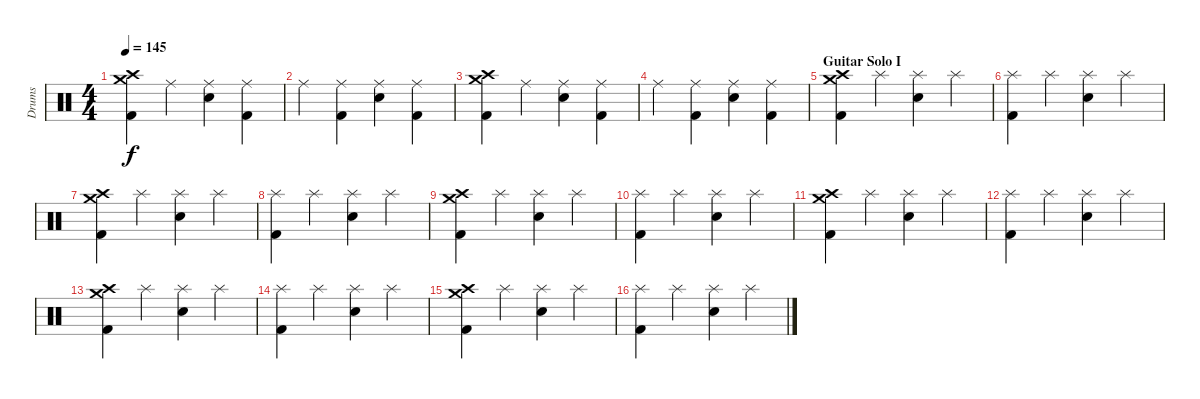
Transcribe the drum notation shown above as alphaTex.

\track ("Drums" "Drums") {instrument percussion}
\staff {score}
\articulation defaults
\ts (4 4)
\tempo 145
\clef neutral
\ks c
("Crash medium (hit)" "Crash high (hit)" "Kick (hit) 2").4{dy f} "Ride (middle)".4 ("Ride (middle)" "Snare (hit) 2").4 ("Ride (middle)" "Kick (hit) 2").4 |
"Ride (middle)".4 ("Ride (middle)" "Kick (hit) 2").4 ("Ride (middle)" "Snare (hit) 2").4 ("Ride (middle)" "Kick (hit) 2").4 |
("Crash medium (hit)" "Crash high (hit)" "Kick (hit) 2").4 "Ride (middle)".4 ("Ride (middle)" "Snare (hit) 2").4 ("Ride (middle)" "Kick (hit) 2").4 |
"Ride (middle)".4 ("Ride (middle)" "Kick (hit) 2").4 ("Ride (middle)" "Snare (hit) 2").4 ("Ride (middle)" "Kick (hit) 2").4 |
\section ("" "Guitar Solo I")
("Crash medium (hit)" "Crash high (hit)" "Kick (hit) 2").4 "Splash (hit)".4 ("Splash (hit)" "Snare (hit) 2").4 "Splash (hit)".4 |
("Splash (hit)" "Kick (hit) 2").4 "Splash (hit)".4 ("Splash (hit)" "Snare (hit) 2").4 "Splash (hit)".4 |
("Crash medium (hit)" "Crash high (hit)" "Kick (hit) 2").4 "Splash (hit)".4 ("Splash (hit)" "Snare (hit) 2").4 "Splash (hit)".4 |
("Splash (hit)" "Kick (hit) 2").4 "Splash (hit)".4 ("Splash (hit)" "Snare (hit) 2").4 "Splash (hit)".4 |
("Crash medium (hit)" "Crash high (hit)" "Kick (hit) 2").4 "Splash (hit)".4 ("Splash (hit)" "Snare (hit) 2").4 "Splash (hit)".4 |
("Splash (hit)" "Kick (hit) 2").4 "Splash (hit)".4 ("Splash (hit)" "Snare (hit) 2").4 "Splash (hit)".4 |
("Crash medium (hit)" "Crash high (hit)" "Kick (hit) 2").4 "Splash (hit)".4 ("Splash (hit)" "Snare (hit) 2").4 "Splash (hit)".4 |
("Splash (hit)" "Kick (hit) 2").4 "Splash (hit)".4 ("Splash (hit)" "Snare (hit) 2").4 "Splash (hit)".4 |
("Crash medium (hit)" "Crash high (hit)" "Kick (hit) 2").4 "Splash (hit)".4 ("Splash (hit)" "Snare (hit) 2").4 "Splash (hit)".4 |
("Splash (hit)" "Kick (hit) 2").4 "Splash (hit)".4 ("Splash (hit)" "Snare (hit) 2").4 "Splash (hit)".4 |
("Crash medium (hit)" "Crash high (hit)" "Kick (hit) 2").4 "Splash (hit)".4 ("Splash (hit)" "Snare (hit) 2").4 "Splash (hit)".4 |
("Splash (hit)" "Kick (hit) 2").4 "Splash (hit)".4 ("Splash (hit)" "Snare (hit) 2").4 "Splash (hit)".4
